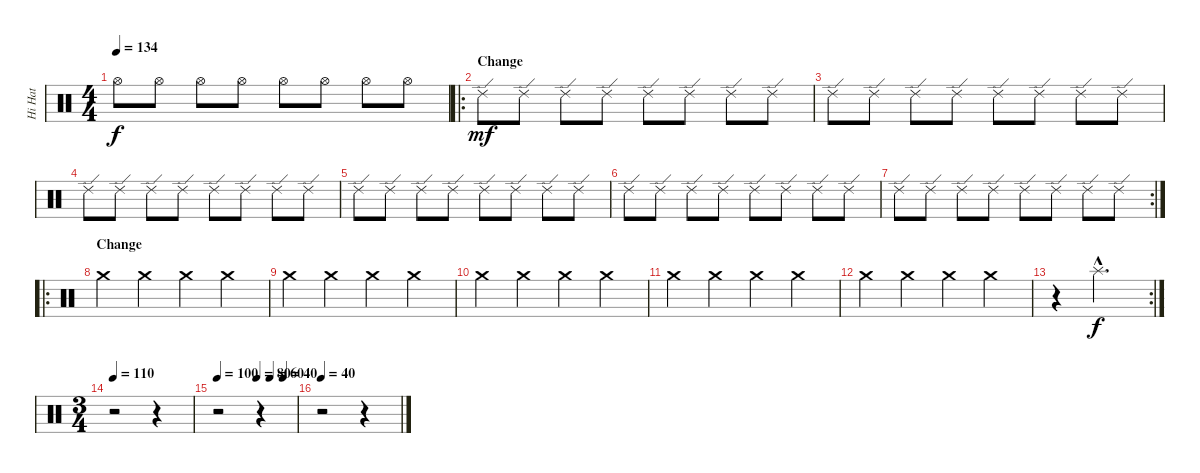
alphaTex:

\track ("Hi Hat" "Hi Hat") {instrument percussion}
\staff {score}
\articulation defaults
\ts (4 4)
\tempo 134
\clef neutral
\ks c "Hi-Hat (open)".8{dy f} "Hi-Hat (open)".8 "Hi-Hat (open)".8 "Hi-Hat (open)".8 "Hi-Hat (open)".8 "Hi-Hat (open)".8 "Hi-Hat (open)".8 "Hi-Hat (open)".8
|
\ro
\section ("" "Change")
"Ride (edge) 2".8{dy mf} "Ride (edge) 2".8 "Ride (edge) 2".8 "Ride (edge) 2".8 "Ride (edge) 2".8 "Ride (edge) 2".8 "Ride (edge) 2".8 "Ride (edge) 2".8 |
"Ride (edge) 2".8 "Ride (edge) 2".8 "Ride (edge) 2".8 "Ride (edge) 2".8 "Ride (edge) 2".8 "Ride (edge) 2".8 "Ride (edge) 2".8 "Ride (edge) 2".8 |
"Ride (edge) 2".8 "Ride (edge) 2".8 "Ride (edge) 2".8 "Ride (edge) 2".8 "Ride (edge) 2".8 "Ride (edge) 2".8 "Ride (edge) 2".8 "Ride (edge) 2".8 |
"Ride (edge) 2".8 "Ride (edge) 2".8 "Ride (edge) 2".8 "Ride (edge) 2".8 "Ride (edge) 2".8 "Ride (edge) 2".8 "Ride (edge) 2".8 "Ride (edge) 2".8 |
"Ride (edge) 2".8 "Ride (edge) 2".8 "Ride (edge) 2".8 "Ride (edge) 2".8 "Ride (edge) 2".8 "Ride (edge) 2".8 "Ride (edge) 2".8 "Ride (edge) 2".8 |
\rc 2 "Ride (edge) 2".8 "Ride (edge) 2".8 "Ride (edge) 2".8 "Ride (edge) 2".8 "Ride (edge) 2".8 "Ride (edge) 2".8 "Ride (edge) 2".8 "Ride (edge) 2".8
|
\ro
\section ("" "Change")
"Crash medium (hit)".4 "Crash medium (hit)".4 "Crash medium (hit)".4 "Crash medium (hit)".4 |
"Crash medium (hit)".4 "Crash medium (hit)".4 "Crash medium (hit)".4 "Crash medium (hit)".4 |
"Crash medium (hit)".4 "Crash medium (hit)".4 "Crash medium (hit)".4 "Crash medium (hit)".4 |
"Crash medium (hit)".4 "Crash medium (hit)".4 "Crash medium (hit)".4 "Crash medium (hit)".4 |
"Crash medium (hit)".4 "Crash medium (hit)".4 "Crash medium (hit)".4 "Crash medium (hit)".4 |
\rc 2
r.4 "Splash (hit)"{hac}.2{d dy f} |
\ts (3 4)
\tempo 110
r.2 r.4 |
\tempo 100
\tempo (80 0.5)
\tempo (60 0.6666666666666666)
\tempo (40 0.8333333333333334)
r.2 r.4 |
\tempo 40
r.2 r.4
